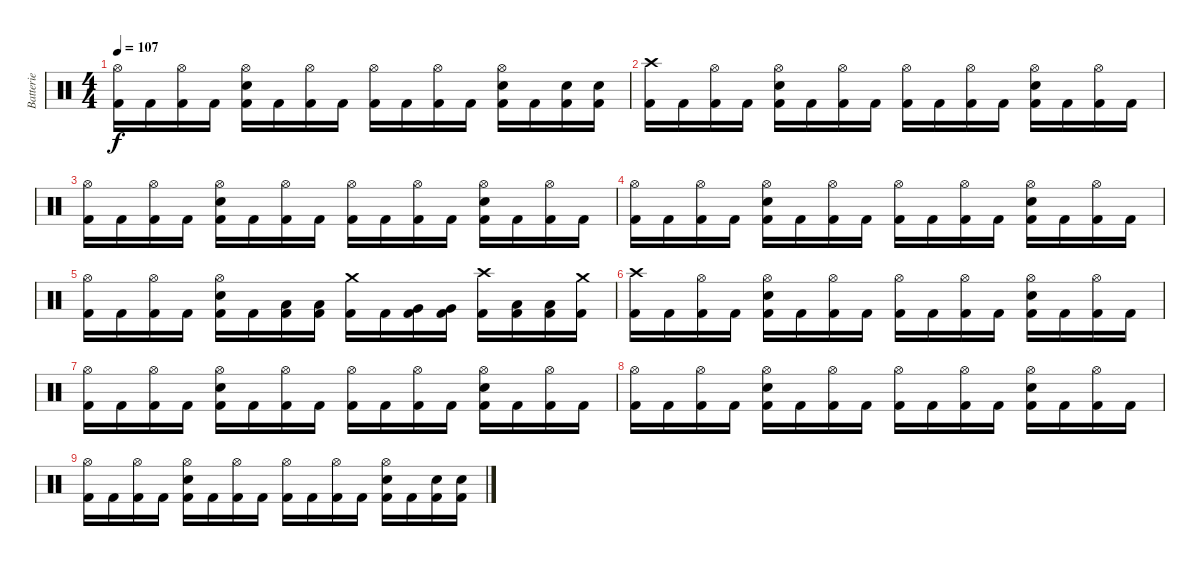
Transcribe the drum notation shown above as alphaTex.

\track ("Batterie" "Batterie") {instrument percussion}
\staff {score}
\articulation defaults
\ts (4 4)
\tempo 107
\clef neutral
\ks c
("Hi-Hat (open)" "Kick (hit) 2").16{dy f} "Kick (hit) 2".16 ("Hi-Hat (open)" "Kick (hit) 2").16 "Kick (hit) 2".16 ("Hi-Hat (open)" "Electric Snare (hit)" "Kick (hit) 2").16 "Kick (hit) 2".16 ("Hi-Hat (open)" "Kick (hit) 2").16 "Kick (hit) 2".16 ("Hi-Hat (open)" "Kick (hit) 2").16 "Kick (hit) 2".16 ("Hi-Hat (open)" "Kick (hit) 2").16 "Kick (hit) 2".16 ("Hi-Hat (open)" "Electric Snare (hit)" "Kick (hit) 2").16 "Kick (hit) 2".16 ("Electric Snare (hit)" "Kick (hit) 2").16 ("Electric Snare (hit)" "Kick (hit) 2").16 |
("Crash high (hit)" "Kick (hit) 2").16 "Kick (hit) 2".16 ("Hi-Hat (open)" "Kick (hit) 2").16 "Kick (hit) 2".16 ("Hi-Hat (open)" "Electric Snare (hit)" "Kick (hit) 2").16 "Kick (hit) 2".16 ("Hi-Hat (open)" "Kick (hit) 2").16 "Kick (hit) 2".16 ("Hi-Hat (open)" "Kick (hit) 2").16 "Kick (hit) 2".16 ("Hi-Hat (open)" "Kick (hit) 2").16 "Kick (hit) 2".16 ("Hi-Hat (open)" "Electric Snare (hit)" "Kick (hit) 2").16 "Kick (hit) 2".16 ("Hi-Hat (open)" "Kick (hit) 2").16 "Kick (hit) 2".16 |
("Hi-Hat (open)" "Kick (hit) 2").16 "Kick (hit) 2".16 ("Hi-Hat (open)" "Kick (hit) 2").16 "Kick (hit) 2".16 ("Hi-Hat (open)" "Electric Snare (hit)" "Kick (hit) 2").16 "Kick (hit) 2".16 ("Hi-Hat (open)" "Kick (hit) 2").16 "Kick (hit) 2".16 ("Hi-Hat (open)" "Kick (hit) 2").16 "Kick (hit) 2".16 ("Hi-Hat (open)" "Kick (hit) 2").16 "Kick (hit) 2".16 ("Hi-Hat (open)" "Electric Snare (hit)" "Kick (hit) 2").16 "Kick (hit) 2".16 ("Hi-Hat (open)" "Kick (hit) 2").16 "Kick (hit) 2".16 |
("Hi-Hat (open)" "Kick (hit) 2").16 "Kick (hit) 2".16 ("Hi-Hat (open)" "Kick (hit) 2").16 "Kick (hit) 2".16 ("Hi-Hat (open)" "Electric Snare (hit)" "Kick (hit) 2").16 "Kick (hit) 2".16 ("Hi-Hat (open)" "Kick (hit) 2").16 "Kick (hit) 2".16 ("Hi-Hat (open)" "Kick (hit) 2").16 "Kick (hit) 2".16 ("Hi-Hat (open)" "Kick (hit) 2").16 "Kick (hit) 2".16 ("Hi-Hat (open)" "Electric Snare (hit)" "Kick (hit) 2").16 "Kick (hit) 2".16 ("Hi-Hat (open)" "Kick (hit) 2").16 "Kick (hit) 2".16 |
("Hi-Hat (open)" "Kick (hit) 2").16 "Kick (hit) 2".16 ("Hi-Hat (open)" "Kick (hit) 2").16 "Kick (hit) 2".16 ("Hi-Hat (open)" "Electric Snare (hit)" "Kick (hit) 2").16 "Kick (hit) 2".16 ("Low Tom (hit)" "Kick (hit) 2").16 ("Low Tom (hit)" "Kick (hit) 2").16 ("Crash medium (hit)" "Kick (hit) 2").16 "Kick (hit) 2".16 ("Very Low Tom (hit)" "Kick (hit) 2").16 ("Very Low Tom (hit)" "Kick (hit) 2").16 ("Crash high (hit)" "Kick (hit) 2").16 ("Low Floor Tom (hit)" "Kick (hit) 2").16 ("Low Floor Tom (hit)" "Kick (hit) 2").16 ("Crash medium (hit)" "Kick (hit) 2").16 |
("Crash high (hit)" "Kick (hit) 2").16 "Kick (hit) 2".16 ("Hi-Hat (open)" "Kick (hit) 2").16 "Kick (hit) 2".16 ("Hi-Hat (open)" "Electric Snare (hit)" "Kick (hit) 2").16 "Kick (hit) 2".16 ("Hi-Hat (open)" "Kick (hit) 2").16 "Kick (hit) 2".16 ("Hi-Hat (open)" "Kick (hit) 2").16 "Kick (hit) 2".16 ("Hi-Hat (open)" "Kick (hit) 2").16 "Kick (hit) 2".16 ("Hi-Hat (open)" "Electric Snare (hit)" "Kick (hit) 2").16 "Kick (hit) 2".16 ("Hi-Hat (open)" "Kick (hit) 2").16 "Kick (hit) 2".16 |
("Hi-Hat (open)" "Kick (hit) 2").16 "Kick (hit) 2".16 ("Hi-Hat (open)" "Kick (hit) 2").16 "Kick (hit) 2".16 ("Hi-Hat (open)" "Electric Snare (hit)" "Kick (hit) 2").16 "Kick (hit) 2".16 ("Hi-Hat (open)" "Kick (hit) 2").16 "Kick (hit) 2".16 ("Hi-Hat (open)" "Kick (hit) 2").16 "Kick (hit) 2".16 ("Hi-Hat (open)" "Kick (hit) 2").16 "Kick (hit) 2".16 ("Hi-Hat (open)" "Electric Snare (hit)" "Kick (hit) 2").16 "Kick (hit) 2".16 ("Hi-Hat (open)" "Kick (hit) 2").16 "Kick (hit) 2".16 |
("Hi-Hat (open)" "Kick (hit) 2").16 "Kick (hit) 2".16 ("Hi-Hat (open)" "Kick (hit) 2").16 "Kick (hit) 2".16 ("Hi-Hat (open)" "Electric Snare (hit)" "Kick (hit) 2").16 "Kick (hit) 2".16 ("Hi-Hat (open)" "Kick (hit) 2").16 "Kick (hit) 2".16 ("Hi-Hat (open)" "Kick (hit) 2").16 "Kick (hit) 2".16 ("Hi-Hat (open)" "Kick (hit) 2").16 "Kick (hit) 2".16 ("Hi-Hat (open)" "Electric Snare (hit)" "Kick (hit) 2").16 "Kick (hit) 2".16 ("Hi-Hat (open)" "Kick (hit) 2").16 "Kick (hit) 2".16 |
("Hi-Hat (open)" "Kick (hit) 2").16 "Kick (hit) 2".16 ("Hi-Hat (open)" "Kick (hit) 2").16 "Kick (hit) 2".16 ("Hi-Hat (open)" "Electric Snare (hit)" "Kick (hit) 2").16 "Kick (hit) 2".16 ("Hi-Hat (open)" "Kick (hit) 2").16 "Kick (hit) 2".16 ("Hi-Hat (open)" "Kick (hit) 2").16 "Kick (hit) 2".16 ("Hi-Hat (open)" "Kick (hit) 2").16 "Kick (hit) 2".16 ("Hi-Hat (open)" "Electric Snare (hit)" "Kick (hit) 2").16 "Kick (hit) 2".16 ("Electric Snare (hit)" "Kick (hit) 2").16 ("Electric Snare (hit)" "Kick (hit) 2").16
